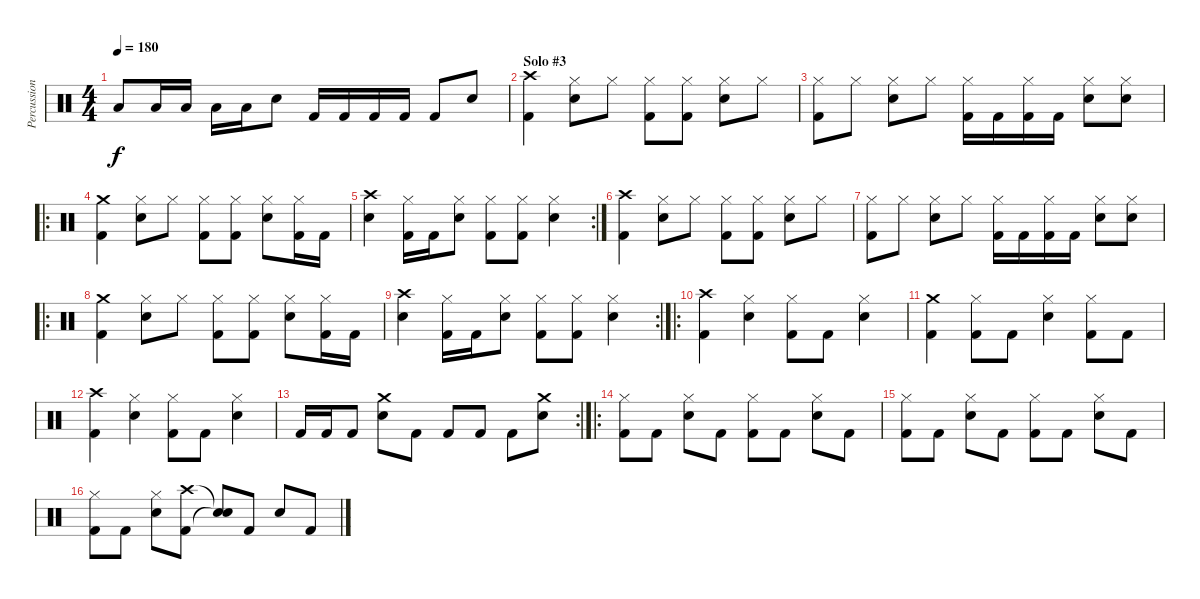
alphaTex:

\track ("Percussion" "Percussion") {instrument percussion}
\staff {score}
\articulation defaults
\ts (4 4)
\tempo 180
\clef neutral
\ks c "Low Tom (hit)".8{dy f} "Low Tom (hit)".16 "Low Tom (hit)".16 "Low Tom (hit)".16 "Low Tom (hit)".16 "Snare (hit) 2".8 "Kick (hit) 2".16 "Kick (hit) 2".16 "Kick (hit) 2".16 "Kick (hit) 2".16 "Kick (hit) 2".8 "Snare (hit) 2".8
|
\section ("" "Solo #3")
("Crash high (hit)" "Kick (hit) 2").4 ("Hi-Hat (closed)" "Snare (hit) 2").8 "Hi-Hat (closed)".8 ("Hi-Hat (closed)" "Kick (hit) 2").8 ("Hi-Hat (closed)" "Kick (hit) 2").8 ("Hi-Hat (closed)" "Snare (hit) 2").8 "Hi-Hat (closed)".8 |
("Hi-Hat (closed)" "Kick (hit) 2").8 "Hi-Hat (closed)".8 ("Hi-Hat (closed)" "Snare (hit) 2").8 "Hi-Hat (closed)".8 ("Hi-Hat (closed)" "Kick (hit) 2").16 "Kick (hit) 2".16 ("Hi-Hat (closed)" "Kick (hit) 2").16 "Kick (hit) 2".16 ("Hi-Hat (closed)" "Snare (hit) 2").8 ("Hi-Hat (closed)" "Snare (hit) 2").8 |
\ro
("Crash medium (hit)" "Kick (hit) 2").4 ("Hi-Hat (closed)" "Snare (hit) 2").8 "Hi-Hat (closed)".8 ("Hi-Hat (closed)" "Kick (hit) 2").8 ("Hi-Hat (closed)" "Kick (hit) 2").8 ("Hi-Hat (closed)" "Snare (hit) 2").8 ("Hi-Hat (closed)" "Kick (hit) 2").16 "Kick (hit) 2".16 |
\rc 2
("Crash high (hit)" "Snare (hit) 2").4 ("Hi-Hat (closed)" "Kick (hit) 2").16 "Kick (hit) 2".16 ("Hi-Hat (closed)" "Snare (hit) 2").8 ("Hi-Hat (closed)" "Kick (hit) 2").8 ("Hi-Hat (closed)" "Kick (hit) 2").8 ("Hi-Hat (closed)" "Snare (hit) 2").4 |
("Crash high (hit)" "Kick (hit) 2").4 ("Hi-Hat (closed)" "Snare (hit) 2").8 "Hi-Hat (closed)".8 ("Hi-Hat (closed)" "Kick (hit) 2").8 ("Hi-Hat (closed)" "Kick (hit) 2").8 ("Hi-Hat (closed)" "Snare (hit) 2").8 "Hi-Hat (closed)".8 |
("Hi-Hat (closed)" "Kick (hit) 2").8 "Hi-Hat (closed)".8 ("Hi-Hat (closed)" "Snare (hit) 2").8 "Hi-Hat (closed)".8 ("Hi-Hat (closed)" "Kick (hit) 2").16 "Kick (hit) 2".16 ("Hi-Hat (closed)" "Kick (hit) 2").16 "Kick (hit) 2".16 ("Hi-Hat (closed)" "Snare (hit) 2").8 ("Hi-Hat (closed)" "Snare (hit) 2").8 |
\ro
("Crash medium (hit)" "Kick (hit) 2").4 ("Hi-Hat (closed)" "Snare (hit) 2").8 "Hi-Hat (closed)".8 ("Hi-Hat (closed)" "Kick (hit) 2").8 ("Hi-Hat (closed)" "Kick (hit) 2").8 ("Hi-Hat (closed)" "Snare (hit) 2").8 ("Hi-Hat (closed)" "Kick (hit) 2").16 "Kick (hit) 2".16 |
\rc 2
("Crash high (hit)" "Snare (hit) 2").4 ("Hi-Hat (closed)" "Kick (hit) 2").16 "Kick (hit) 2".16 ("Hi-Hat (closed)" "Snare (hit) 2").8 ("Hi-Hat (closed)" "Kick (hit) 2").8 ("Hi-Hat (closed)" "Kick (hit) 2").8 ("Hi-Hat (closed)" "Snare (hit) 2").4 |
\ro
("Crash high (hit)" "Kick (hit) 2").4 ("Hi-Hat (closed)" "Snare (hit) 2").4 ("Hi-Hat (closed)" "Kick (hit) 2").8 "Kick (hit) 2".8 ("Hi-Hat (closed)" "Snare (hit) 2").4 |
("Crash medium (hit)" "Kick (hit) 2").4 ("Hi-Hat (closed)" "Kick (hit) 2").8 "Kick (hit) 2".8 ("Hi-Hat (closed)" "Snare (hit) 2").4 ("Hi-Hat (closed)" "Kick (hit) 2").8 "Kick (hit) 2".8 |
("Crash high (hit)" "Kick (hit) 2").4 ("Hi-Hat (closed)" "Snare (hit) 2").4 ("Hi-Hat (closed)" "Kick (hit) 2").8 "Kick (hit) 2".8 ("Hi-Hat (closed)" "Snare (hit) 2").4 |
\rc 2 "Kick (hit) 2".16 "Kick (hit) 2".16 "Kick (hit) 2".8
("Crash medium (hit)" "Snare (hit) 2").8 "Kick (hit) 2".8 "Kick (hit) 2".8 "Kick (hit) 2".8 "Kick (hit) 2".8 ("Crash medium (hit)" "Snare (hit) 2").8 |
\ro
("Hi-Hat (closed)" "Kick (hit) 2").8 "Kick (hit) 2".8 ("Hi-Hat (closed)" "Snare (hit) 2").8 "Kick (hit) 2".8 ("Hi-Hat (closed)" "Kick (hit) 2").8 "Kick (hit) 2".8 ("Hi-Hat (closed)" "Snare (hit) 2").8 "Kick (hit) 2".8 |
("Hi-Hat (closed)" "Kick (hit) 2").8 "Kick (hit) 2".8 ("Hi-Hat (closed)" "Snare (hit) 2").8 "Kick (hit) 2".8 ("Hi-Hat (closed)" "Kick (hit) 2").8 "Kick (hit) 2".8 ("Hi-Hat (closed)" "Snare (hit) 2").8 "Kick (hit) 2".8 |
("Hi-Hat (closed)" "Kick (hit) 2").8 "Kick (hit) 2".8 ("Hi-Hat (closed)" "Snare (hit) 2").8 ("Crash high (hit)" "Kick (hit) 2").8 ("Snare (hit)"{t} "Snare (hit)"{t}).8 "Kick (hit) 2".8 "Snare (hit) 2".8 "Kick (hit) 2".8
